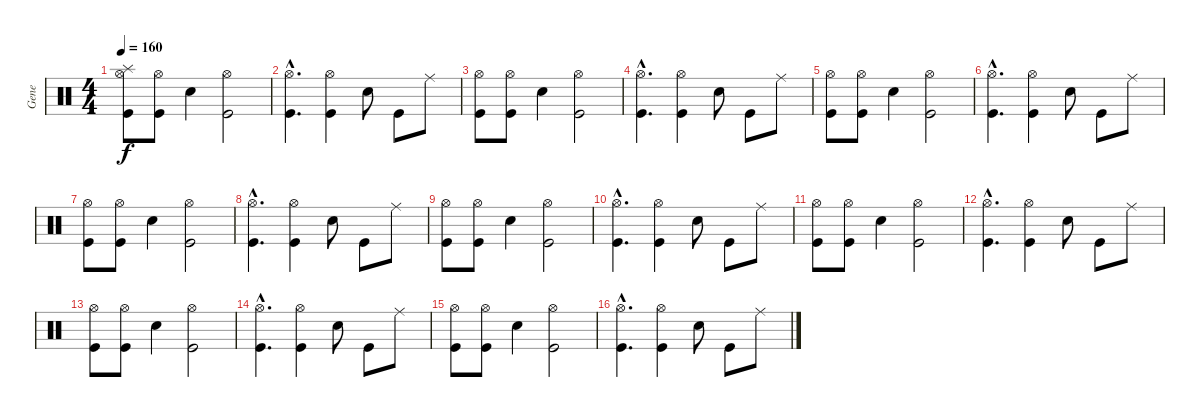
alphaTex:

\track ("Gene" "Gene") {instrument percussion}
\staff {score}
\articulation defaults
\ts (4 4)
\tempo 160
\clef neutral
\ks c
("Kick (hit)" "Hi-Hat (open)" "Splash (hit)").8{dy f} ("Kick (hit)" "Hi-Hat (open)").8 "Snare (hit) 2".4 ("Kick (hit)" "Hi-Hat (open)").2 |
("Kick (hit)"{hac} "Hi-Hat (open)"{hac}).4{d} ("Kick (hit)" "Hi-Hat (open)").4 "Snare (hit) 2".8 "Kick (hit)".8 "Ride (middle)".8 |
("Kick (hit)" "Hi-Hat (open)").8 ("Kick (hit)" "Hi-Hat (open)").8 "Snare (hit) 2".4 ("Kick (hit)" "Hi-Hat (open)").2 |
("Kick (hit)"{hac} "Hi-Hat (open)"{hac}).4{d} ("Kick (hit)" "Hi-Hat (open)").4 "Snare (hit) 2".8 "Kick (hit)".8 "Ride (middle)".8 |
("Kick (hit)" "Hi-Hat (open)").8 ("Kick (hit)" "Hi-Hat (open)").8 "Snare (hit) 2".4 ("Kick (hit)" "Hi-Hat (open)").2 |
("Kick (hit)"{hac} "Hi-Hat (open)"{hac}).4{d} ("Kick (hit)" "Hi-Hat (open)").4 "Snare (hit) 2".8 "Kick (hit)".8 "Ride (middle)".8 |
("Kick (hit)" "Hi-Hat (open)").8 ("Kick (hit)" "Hi-Hat (open)").8 "Snare (hit) 2".4 ("Kick (hit)" "Hi-Hat (open)").2 |
("Kick (hit)"{hac} "Hi-Hat (open)"{hac}).4{d} ("Kick (hit)" "Hi-Hat (open)").4 "Snare (hit) 2".8 "Kick (hit)".8 "Ride (middle)".8 |
("Kick (hit)" "Hi-Hat (open)").8 ("Kick (hit)" "Hi-Hat (open)").8 "Snare (hit) 2".4 ("Kick (hit)" "Hi-Hat (open)").2 |
("Kick (hit)"{hac} "Hi-Hat (open)"{hac}).4{d} ("Kick (hit)" "Hi-Hat (open)").4 "Snare (hit) 2".8 "Kick (hit)".8 "Ride (middle)".8 |
("Kick (hit)" "Hi-Hat (open)").8 ("Kick (hit)" "Hi-Hat (open)").8 "Snare (hit) 2".4 ("Kick (hit)" "Hi-Hat (open)").2 |
("Kick (hit)"{hac} "Hi-Hat (open)"{hac}).4{d} ("Kick (hit)" "Hi-Hat (open)").4 "Snare (hit) 2".8 "Kick (hit)".8 "Ride (middle)".8 |
("Kick (hit)" "Hi-Hat (open)").8 ("Kick (hit)" "Hi-Hat (open)").8 "Snare (hit) 2".4 ("Kick (hit)" "Hi-Hat (open)").2 |
("Kick (hit)"{hac} "Hi-Hat (open)"{hac}).4{d} ("Kick (hit)" "Hi-Hat (open)").4 "Snare (hit) 2".8 "Kick (hit)".8 "Ride (middle)".8 |
("Kick (hit)" "Hi-Hat (open)").8 ("Kick (hit)" "Hi-Hat (open)").8 "Snare (hit) 2".4 ("Kick (hit)" "Hi-Hat (open)").2 |
("Kick (hit)"{hac} "Hi-Hat (open)"{hac}).4{d} ("Kick (hit)" "Hi-Hat (open)").4 "Snare (hit) 2".8 "Kick (hit)".8 "Ride (middle)".8
